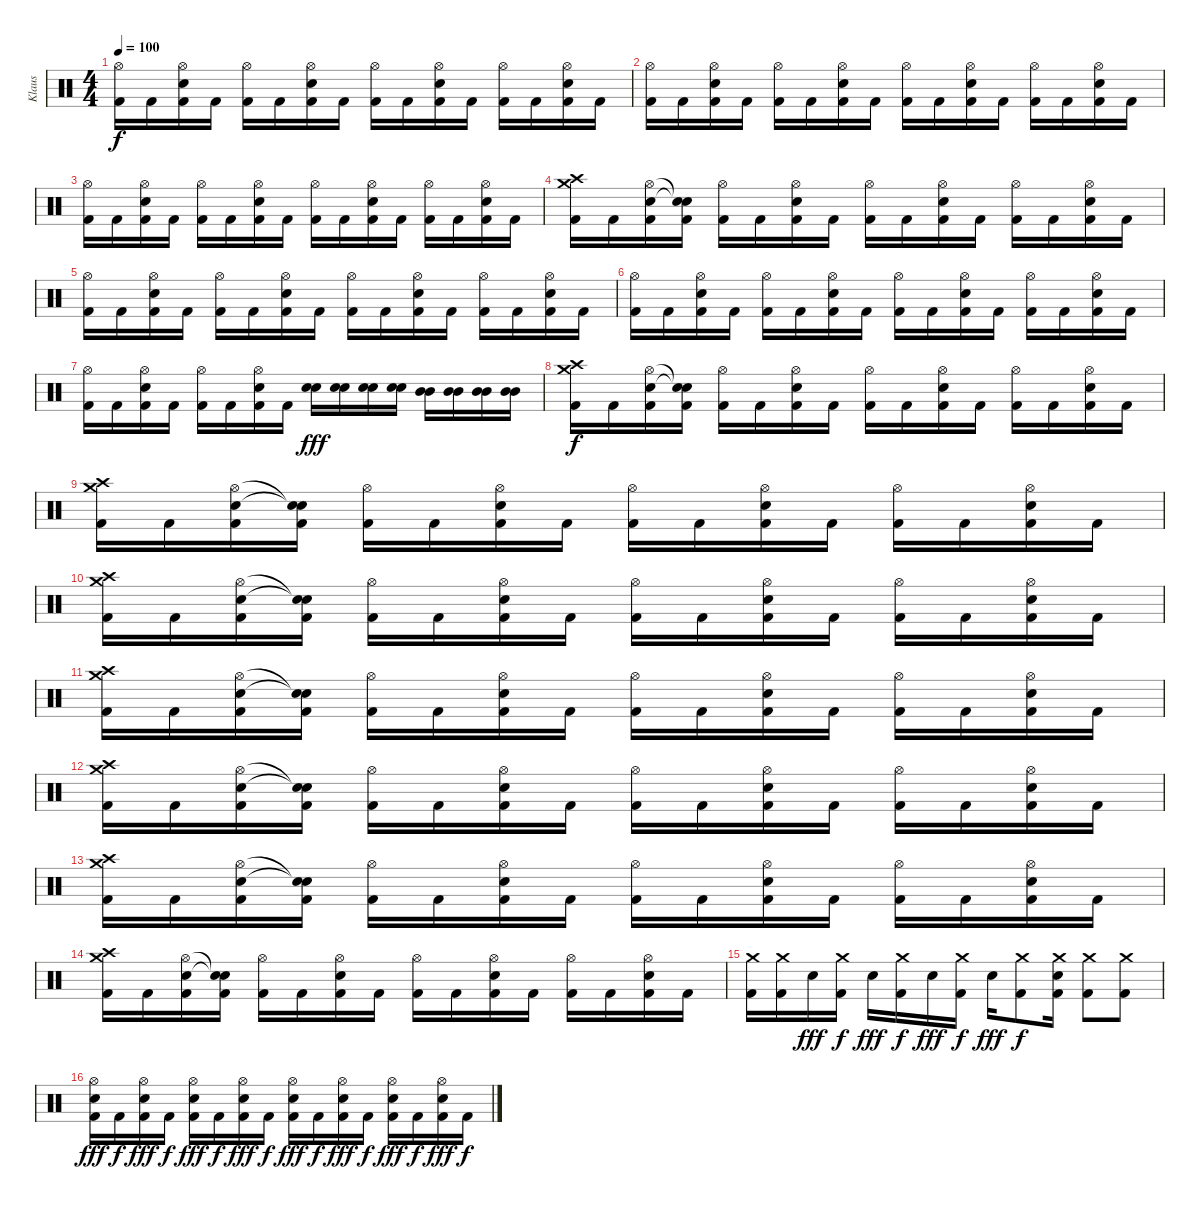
\track ("Klaus" "Klaus") {instrument percussion}
\staff {score}
\articulation defaults
\ts (4 4)
\tempo 100
\clef neutral
\ks c
("Hi-Hat (open)" "Kick (hit) 2").16{dy f} "Kick (hit) 2".16 ("Hi-Hat (open)" "Electric Snare (hit)" "Kick (hit) 2").16 "Kick (hit) 2".16 ("Hi-Hat (open)" "Kick (hit) 2").16 "Kick (hit) 2".16 ("Hi-Hat (open)" "Electric Snare (hit)" "Kick (hit) 2").16 "Kick (hit) 2".16 ("Hi-Hat (open)" "Kick (hit) 2").16 "Kick (hit) 2".16 ("Hi-Hat (open)" "Electric Snare (hit)" "Kick (hit) 2").16 "Kick (hit) 2".16 ("Hi-Hat (open)" "Kick (hit) 2").16 "Kick (hit) 2".16 ("Hi-Hat (open)" "Electric Snare (hit)" "Kick (hit) 2").16 "Kick (hit) 2".16 |
("Hi-Hat (open)" "Kick (hit) 2").16 "Kick (hit) 2".16 ("Hi-Hat (open)" "Electric Snare (hit)" "Kick (hit) 2").16 "Kick (hit) 2".16 ("Hi-Hat (open)" "Kick (hit) 2").16 "Kick (hit) 2".16 ("Hi-Hat (open)" "Electric Snare (hit)" "Kick (hit) 2").16 "Kick (hit) 2".16 ("Hi-Hat (open)" "Kick (hit) 2").16 "Kick (hit) 2".16 ("Hi-Hat (open)" "Electric Snare (hit)" "Kick (hit) 2").16 "Kick (hit) 2".16 ("Hi-Hat (open)" "Kick (hit) 2").16 "Kick (hit) 2".16 ("Hi-Hat (open)" "Electric Snare (hit)" "Kick (hit) 2").16 "Kick (hit) 2".16 |
("Hi-Hat (open)" "Kick (hit) 2").16 "Kick (hit) 2".16 ("Hi-Hat (open)" "Electric Snare (hit)" "Kick (hit) 2").16 "Kick (hit) 2".16 ("Hi-Hat (open)" "Kick (hit) 2").16 "Kick (hit) 2".16 ("Hi-Hat (open)" "Electric Snare (hit)" "Kick (hit) 2").16 "Kick (hit) 2".16 ("Hi-Hat (open)" "Kick (hit) 2").16 "Kick (hit) 2".16 ("Hi-Hat (open)" "Electric Snare (hit)" "Kick (hit) 2").16 "Kick (hit) 2".16 ("Hi-Hat (open)" "Kick (hit) 2").16 "Kick (hit) 2".16 ("Hi-Hat (open)" "Electric Snare (hit)" "Kick (hit) 2").16 "Kick (hit) 2".16 |
("Crash high (hit)" "Crash medium (hit)" "Kick (hit) 2").16 "Kick (hit) 2".16 ("Hi-Hat (open)" "Electric Snare (hit)" "Kick (hit) 2").16 ("Snare (hit)"{t} "Snare (hit)"{t} "Kick (hit) 2").16 ("Hi-Hat (open)" "Kick (hit) 2").16 "Kick (hit) 2".16 ("Hi-Hat (open)" "Electric Snare (hit)" "Kick (hit) 2").16 "Kick (hit) 2".16 ("Hi-Hat (open)" "Kick (hit) 2").16 "Kick (hit) 2".16 ("Hi-Hat (open)" "Electric Snare (hit)" "Kick (hit) 2").16 "Kick (hit) 2".16 ("Hi-Hat (open)" "Kick (hit) 2").16 "Kick (hit) 2".16 ("Hi-Hat (open)" "Electric Snare (hit)" "Kick (hit) 2").16 "Kick (hit) 2".16 |
("Hi-Hat (open)" "Kick (hit) 2").16 "Kick (hit) 2".16 ("Hi-Hat (open)" "Electric Snare (hit)" "Kick (hit) 2").16 "Kick (hit) 2".16 ("Hi-Hat (open)" "Kick (hit) 2").16 "Kick (hit) 2".16 ("Hi-Hat (open)" "Electric Snare (hit)" "Kick (hit) 2").16 "Kick (hit) 2".16 ("Hi-Hat (open)" "Kick (hit) 2").16 "Kick (hit) 2".16 ("Hi-Hat (open)" "Electric Snare (hit)" "Kick (hit) 2").16 "Kick (hit) 2".16 ("Hi-Hat (open)" "Kick (hit) 2").16 "Kick (hit) 2".16 ("Hi-Hat (open)" "Electric Snare (hit)" "Kick (hit) 2").16 "Kick (hit) 2".16 |
("Hi-Hat (open)" "Kick (hit) 2").16 "Kick (hit) 2".16 ("Hi-Hat (open)" "Electric Snare (hit)" "Kick (hit) 2").16 "Kick (hit) 2".16 ("Hi-Hat (open)" "Kick (hit) 2").16 "Kick (hit) 2".16 ("Hi-Hat (open)" "Electric Snare (hit)" "Kick (hit) 2").16 "Kick (hit) 2".16 ("Hi-Hat (open)" "Kick (hit) 2").16 "Kick (hit) 2".16 ("Hi-Hat (open)" "Electric Snare (hit)" "Kick (hit) 2").16 "Kick (hit) 2".16 ("Hi-Hat (open)" "Kick (hit) 2").16 "Kick (hit) 2".16 ("Hi-Hat (open)" "Electric Snare (hit)" "Kick (hit) 2").16 "Kick (hit) 2".16 |
("Hi-Hat (open)" "Kick (hit) 2").16 "Kick (hit) 2".16 ("Hi-Hat (open)" "Electric Snare (hit)" "Kick (hit) 2").16 "Kick (hit) 2".16 ("Hi-Hat (open)" "Kick (hit) 2").16 "Kick (hit) 2".16 ("Hi-Hat (open)" "Electric Snare (hit)" "Kick (hit) 2").16 "Kick (hit) 2".16 ("Electric Snare (hit)" "Electric Snare (hit)").16{dy fff} ("Electric Snare (hit)" "Electric Snare (hit)").16 ("Electric Snare (hit)" "Electric Snare (hit)").16 ("Electric Snare (hit)" "Electric Snare (hit)").16 ("Mid Tom (hit)" "Mid Tom (hit)").16 ("Mid Tom (hit)" "Mid Tom (hit)").16 ("Mid Tom (hit)" "Mid Tom (hit)").16 ("Mid Tom (hit)" "Mid Tom (hit)").16 |
("Crash high (hit)" "Crash medium (hit)" "Kick (hit) 2").16{dy f} "Kick (hit) 2".16 ("Hi-Hat (open)" "Electric Snare (hit)" "Kick (hit) 2").16 ("Snare (hit)"{t} "Snare (hit)"{t} "Kick (hit) 2").16 ("Hi-Hat (open)" "Kick (hit) 2").16 "Kick (hit) 2".16 ("Hi-Hat (open)" "Electric Snare (hit)" "Kick (hit) 2").16 "Kick (hit) 2".16 ("Hi-Hat (open)" "Kick (hit) 2").16 "Kick (hit) 2".16 ("Hi-Hat (open)" "Electric Snare (hit)" "Kick (hit) 2").16 "Kick (hit) 2".16 ("Hi-Hat (open)" "Kick (hit) 2").16 "Kick (hit) 2".16 ("Hi-Hat (open)" "Electric Snare (hit)" "Kick (hit) 2").16 "Kick (hit) 2".16 |
("Crash high (hit)" "Crash medium (hit)" "Kick (hit) 2").16 "Kick (hit) 2".16 ("Hi-Hat (open)" "Electric Snare (hit)" "Kick (hit) 2").16 ("Snare (hit)"{t} "Snare (hit)"{t} "Kick (hit) 2").16 ("Hi-Hat (open)" "Kick (hit) 2").16 "Kick (hit) 2".16 ("Hi-Hat (open)" "Electric Snare (hit)" "Kick (hit) 2").16 "Kick (hit) 2".16 ("Hi-Hat (open)" "Kick (hit) 2").16 "Kick (hit) 2".16 ("Hi-Hat (open)" "Electric Snare (hit)" "Kick (hit) 2").16 "Kick (hit) 2".16 ("Hi-Hat (open)" "Kick (hit) 2").16 "Kick (hit) 2".16 ("Hi-Hat (open)" "Electric Snare (hit)" "Kick (hit) 2").16 "Kick (hit) 2".16 |
("Crash high (hit)" "Crash medium (hit)" "Kick (hit) 2").16 "Kick (hit) 2".16 ("Hi-Hat (open)" "Electric Snare (hit)" "Kick (hit) 2").16 ("Snare (hit)"{t} "Snare (hit)"{t} "Kick (hit) 2").16 ("Hi-Hat (open)" "Kick (hit) 2").16 "Kick (hit) 2".16 ("Hi-Hat (open)" "Electric Snare (hit)" "Kick (hit) 2").16 "Kick (hit) 2".16 ("Hi-Hat (open)" "Kick (hit) 2").16 "Kick (hit) 2".16 ("Hi-Hat (open)" "Electric Snare (hit)" "Kick (hit) 2").16 "Kick (hit) 2".16 ("Hi-Hat (open)" "Kick (hit) 2").16 "Kick (hit) 2".16 ("Hi-Hat (open)" "Electric Snare (hit)" "Kick (hit) 2").16 "Kick (hit) 2".16 |
("Crash high (hit)" "Crash medium (hit)" "Kick (hit) 2").16 "Kick (hit) 2".16 ("Hi-Hat (open)" "Electric Snare (hit)" "Kick (hit) 2").16 ("Snare (hit)"{t} "Snare (hit)"{t} "Kick (hit) 2").16 ("Hi-Hat (open)" "Kick (hit) 2").16 "Kick (hit) 2".16 ("Hi-Hat (open)" "Electric Snare (hit)" "Kick (hit) 2").16 "Kick (hit) 2".16 ("Hi-Hat (open)" "Kick (hit) 2").16 "Kick (hit) 2".16 ("Hi-Hat (open)" "Electric Snare (hit)" "Kick (hit) 2").16 "Kick (hit) 2".16 ("Hi-Hat (open)" "Kick (hit) 2").16 "Kick (hit) 2".16 ("Hi-Hat (open)" "Electric Snare (hit)" "Kick (hit) 2").16 "Kick (hit) 2".16 |
("Crash high (hit)" "Crash medium (hit)" "Kick (hit) 2").16 "Kick (hit) 2".16 ("Hi-Hat (open)" "Electric Snare (hit)" "Kick (hit) 2").16 ("Snare (hit)"{t} "Snare (hit)"{t} "Kick (hit) 2").16 ("Hi-Hat (open)" "Kick (hit) 2").16 "Kick (hit) 2".16 ("Hi-Hat (open)" "Electric Snare (hit)" "Kick (hit) 2").16 "Kick (hit) 2".16 ("Hi-Hat (open)" "Kick (hit) 2").16 "Kick (hit) 2".16 ("Hi-Hat (open)" "Electric Snare (hit)" "Kick (hit) 2").16 "Kick (hit) 2".16 ("Hi-Hat (open)" "Kick (hit) 2").16 "Kick (hit) 2".16 ("Hi-Hat (open)" "Electric Snare (hit)" "Kick (hit) 2").16 "Kick (hit) 2".16 |
("Crash high (hit)" "Crash medium (hit)" "Kick (hit) 2").16 "Kick (hit) 2".16 ("Hi-Hat (open)" "Electric Snare (hit)" "Kick (hit) 2").16 ("Snare (hit)"{t} "Snare (hit)"{t} "Kick (hit) 2").16 ("Hi-Hat (open)" "Kick (hit) 2").16 "Kick (hit) 2".16 ("Hi-Hat (open)" "Electric Snare (hit)" "Kick (hit) 2").16 "Kick (hit) 2".16 ("Hi-Hat (open)" "Kick (hit) 2").16 "Kick (hit) 2".16 ("Hi-Hat (open)" "Electric Snare (hit)" "Kick (hit) 2").16 "Kick (hit) 2".16 ("Hi-Hat (open)" "Kick (hit) 2").16 "Kick (hit) 2".16 ("Hi-Hat (open)" "Electric Snare (hit)" "Kick (hit) 2").16 "Kick (hit) 2".16 |
("Crash high (hit)" "Crash medium (hit)" "Kick (hit) 2").16 "Kick (hit) 2".16 ("Hi-Hat (open)" "Electric Snare (hit)" "Kick (hit) 2").16 ("Snare (hit)"{t} "Snare (hit)"{t} "Kick (hit) 2").16 ("Hi-Hat (open)" "Kick (hit) 2").16 "Kick (hit) 2".16 ("Hi-Hat (open)" "Electric Snare (hit)" "Kick (hit) 2").16 "Kick (hit) 2".16 ("Hi-Hat (open)" "Kick (hit) 2").16 "Kick (hit) 2".16 ("Hi-Hat (open)" "Electric Snare (hit)" "Kick (hit) 2").16 "Kick (hit) 2".16 ("Hi-Hat (open)" "Kick (hit) 2").16 "Kick (hit) 2".16 ("Hi-Hat (open)" "Electric Snare (hit)" "Kick (hit) 2").16 "Kick (hit) 2".16 |
("Crash medium (hit)" "Kick (hit) 2").16 ("Crash medium (hit)" "Kick (hit) 2").16 "Electric Snare (hit)".16{dy fff} ("Crash medium (hit)" "Kick (hit) 2").16{dy f} "Electric Snare (hit)".16{dy fff} ("Crash medium (hit)" "Kick (hit) 2").16{dy f} "Electric Snare (hit)".16{dy fff} ("Crash medium (hit)" "Kick (hit) 2").16{dy f} "Electric Snare (hit)".16{dy fff} ("Crash medium (hit)" "Kick (hit) 2").8{dy f} ("Crash medium (hit)" "Electric Snare (hit)" "Kick (hit) 2").16 ("Crash medium (hit)" "Kick (hit) 2").8 ("Crash medium (hit)" "Kick (hit) 2").8 |
("Hi-Hat (open)" "Electric Snare (hit)" "Kick (hit) 2").16{dy fff} "Kick (hit) 2".16{dy f} ("Hi-Hat (open)" "Electric Snare (hit)" "Kick (hit) 2").16{dy fff} "Kick (hit) 2".16{dy f} ("Hi-Hat (open)" "Electric Snare (hit)" "Kick (hit) 2").16{dy fff} "Kick (hit) 2".16{dy f} ("Hi-Hat (open)" "Electric Snare (hit)" "Kick (hit) 2").16{dy fff} "Kick (hit) 2".16{dy f} ("Hi-Hat (open)" "Electric Snare (hit)" "Kick (hit) 2").16{dy fff} "Kick (hit) 2".16{dy f} ("Hi-Hat (open)" "Electric Snare (hit)" "Kick (hit) 2").16{dy fff} "Kick (hit) 2".16{dy f} ("Hi-Hat (open)" "Electric Snare (hit)" "Kick (hit) 2").16{dy fff} "Kick (hit) 2".16{dy f} ("Hi-Hat (open)" "Electric Snare (hit)" "Kick (hit) 2").16{dy fff} "Kick (hit) 2".16{dy f}
